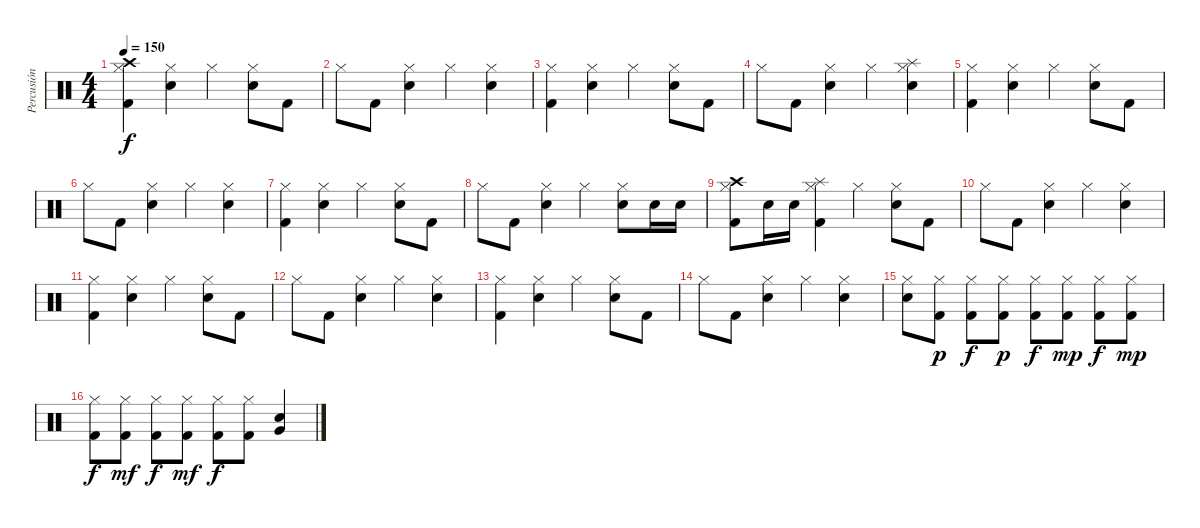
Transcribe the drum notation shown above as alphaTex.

\track ("Percusión" "Percusión") {instrument percussion}
\staff {score}
\articulation defaults
\ts (4 4)
\tempo 150
\clef neutral
\ks c
("Crash high (hit)" "Hi-Hat (closed)" "Kick (hit) 2").4{dy f} ("Hi-Hat (closed)" "Snare (hit) 2").4 "Hi-Hat (closed)".4 ("Hi-Hat (closed)" "Snare (hit) 2").8 "Kick (hit) 2".8 |
"Hi-Hat (closed)".8 "Kick (hit) 2".8 ("Hi-Hat (closed)" "Snare (hit) 2").4 "Hi-Hat (closed)".4 ("Hi-Hat (closed)" "Snare (hit) 2").4 |
("Hi-Hat (closed)" "Kick (hit) 2").4 ("Hi-Hat (closed)" "Snare (hit) 2").4 "Hi-Hat (closed)".4 ("Hi-Hat (closed)" "Snare (hit) 2").8 "Kick (hit) 2".8 |
"Hi-Hat (closed)".8 "Kick (hit) 2".8 ("Hi-Hat (closed)" "Snare (hit) 2").4 "Hi-Hat (closed)".4 ("Splash (hit)" "Hi-Hat (closed)" "Snare (hit) 2").4 |
("Hi-Hat (closed)" "Kick (hit) 2").4 ("Hi-Hat (closed)" "Snare (hit) 2").4 "Hi-Hat (closed)".4 ("Hi-Hat (closed)" "Snare (hit) 2").8 "Kick (hit) 2".8 |
"Hi-Hat (closed)".8 "Kick (hit) 2".8 ("Hi-Hat (closed)" "Snare (hit) 2").4 "Hi-Hat (closed)".4 ("Hi-Hat (closed)" "Snare (hit) 2").4 |
("Hi-Hat (closed)" "Kick (hit) 2").4 ("Hi-Hat (closed)" "Snare (hit) 2").4 "Hi-Hat (closed)".4 ("Hi-Hat (closed)" "Snare (hit) 2").8 "Kick (hit) 2".8 |
"Hi-Hat (closed)".8 "Kick (hit) 2".8 ("Hi-Hat (closed)" "Snare (hit) 2").4 "Hi-Hat (closed)".4 ("Hi-Hat (closed)" "Snare (hit) 2").8 "Snare (hit) 2".16 "Snare (hit) 2".16 |
("Crash high (hit)" "Hi-Hat (closed)" "Kick (hit) 2").8 "Snare (hit) 2".16 "Snare (hit) 2".16 ("Splash (hit)" "Hi-Hat (closed)" "Kick (hit) 2").4 "Hi-Hat (closed)".4 ("Hi-Hat (closed)" "Snare (hit) 2").8 "Kick (hit) 2".8 |
"Hi-Hat (closed)".8 "Kick (hit) 2".8 ("Hi-Hat (closed)" "Snare (hit) 2").4 "Hi-Hat (closed)".4 ("Hi-Hat (closed)" "Snare (hit) 2").4 |
("Hi-Hat (closed)" "Kick (hit) 2").4 ("Hi-Hat (closed)" "Snare (hit) 2").4 "Hi-Hat (closed)".4 ("Hi-Hat (closed)" "Snare (hit) 2").8 "Kick (hit) 2".8 |
"Hi-Hat (closed)".8 "Kick (hit) 2".8 ("Hi-Hat (closed)" "Snare (hit) 2").4 "Hi-Hat (closed)".4 ("Hi-Hat (closed)" "Snare (hit) 2").4 |
("Hi-Hat (closed)" "Kick (hit) 2").4 ("Hi-Hat (closed)" "Snare (hit) 2").4 "Hi-Hat (closed)".4 ("Hi-Hat (closed)" "Snare (hit) 2").8 "Kick (hit) 2".8 |
"Hi-Hat (closed)".8 "Kick (hit) 2".8 ("Hi-Hat (closed)" "Snare (hit) 2").4 "Hi-Hat (closed)".4 ("Hi-Hat (closed)" "Snare (hit) 2").4 |
("Hi-Hat (closed)" "Snare (hit) 2").8 ("Hi-Hat (closed)" "Kick (hit) 2").8{dy p} ("Hi-Hat (closed)" "Kick (hit) 2").8{dy f} ("Hi-Hat (closed)" "Kick (hit) 2").8{dy p} ("Hi-Hat (closed)" "Kick (hit) 2").8{dy f} ("Hi-Hat (closed)" "Kick (hit) 2").8{dy mp} ("Hi-Hat (closed)" "Kick (hit) 2").8{dy f} ("Hi-Hat (closed)" "Kick (hit) 2").8{dy mp} |
("Hi-Hat (closed)" "Kick (hit) 2").8{dy f} ("Hi-Hat (closed)" "Kick (hit) 2").8{dy mf} ("Hi-Hat (closed)" "Kick (hit) 2").8{dy f} ("Hi-Hat (closed)" "Kick (hit) 2").8{dy mf} ("Hi-Hat (closed)" "Kick (hit) 2").8{dy f} ("Hi-Hat (closed)" "Kick (hit) 2").8 ("Very Low Tom (hit)" "Snare (hit) 2").4
